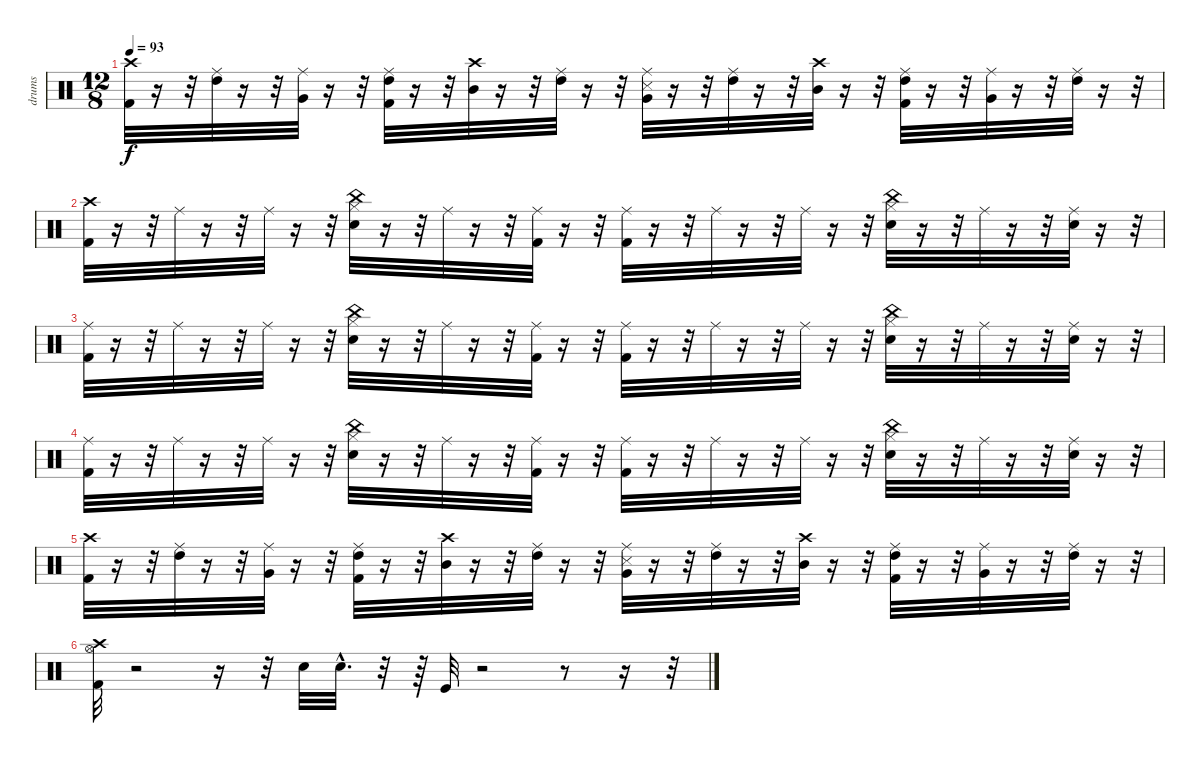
\track ("drums" "drums") {instrument percussion}
\staff {score}
\articulation defaults
\ts (12 8)
\tempo 93
\clef neutral
\ks c
("Kick (hit) 2" "Crash high (hit)").32{dy f} r.16 r.32 ("Ride (middle)" "High Tom (hit)").32 r.16 r.32 ("Very Low Tom (hit)" "Ride (middle)").32 r.16 r.32 ("Ride (middle)" "Kick (hit) 2" "High Tom (hit)").32 r.16 r.32 ("Mid Tom (hit)" "Crash high (hit)").32 r.16 r.32 ("Ride (middle)" "High Tom (hit)").32 r.16 r.32 ("Very Low Tom (hit)" "Snare (side stick) 3" "Ride (middle)").32 r.16 r.32 ("Ride (middle)" "High Tom (hit)").32 r.16 r.32 ("Mid Tom (hit)" "Crash high (hit)").32 r.16 r.32 ("Ride (middle)" "Kick (hit) 2" "High Tom (hit)").32 r.16 r.32 ("Very Low Tom (hit)" "Ride (middle)").32 r.16 r.32 ("Ride (middle)" "High Tom (hit)").32 r.16 r.32 |
("Kick (hit) 2" "Crash high (hit)").32 r.16 r.32 "Ride (middle)".32 r.16 r.32 "Ride (middle)".32 r.16 r.32 ("China (hit)" "Hi-Hat (closed)" "Snare (hit) 2").32 r.16 r.32 "Ride (middle)".32 r.16 r.32 ("Ride (middle)" "Kick (hit) 2").32 r.16 r.32 ("Kick (hit) 2" "Ride (middle)").32 r.16 r.32 "Ride (middle)".32 r.16 r.32 "Ride (middle)".32 r.16 r.32 ("China (hit)" "Hi-Hat (closed)" "Snare (hit) 2").32 r.16 r.32 "Ride (middle)".32 r.16 r.32 ("Ride (middle)" "Snare (hit) 2").32 r.16 r.32 |
("Kick (hit) 2" "Ride (middle)").32 r.16 r.32 "Ride (middle)".32 r.16 r.32 "Ride (middle)".32 r.16 r.32 ("China (hit)" "Hi-Hat (closed)" "Snare (hit) 2").32 r.16 r.32 "Ride (middle)".32 r.16 r.32 ("Ride (middle)" "Kick (hit) 2").32 r.16 r.32 ("Kick (hit) 2" "Ride (middle)").32 r.16 r.32 "Ride (middle)".32 r.16 r.32 "Ride (middle)".32 r.16 r.32 ("China (hit)" "Hi-Hat (closed)" "Snare (hit) 2").32 r.16 r.32 "Ride (middle)".32 r.16 r.32 ("Ride (middle)" "Snare (hit) 2").32 r.16 r.32 |
("Kick (hit) 2" "Ride (middle)").32 r.16 r.32 "Ride (middle)".32 r.16 r.32 "Ride (middle)".32 r.16 r.32 ("China (hit)" "Hi-Hat (closed)" "Snare (hit) 2").32 r.16 r.32 "Ride (middle)".32 r.16 r.32 ("Ride (middle)" "Kick (hit) 2").32 r.16 r.32 ("Kick (hit) 2" "Ride (middle)").32 r.16 r.32 "Ride (middle)".32 r.16 r.32 "Ride (middle)".32 r.16 r.32 ("China (hit)" "Hi-Hat (closed)" "Snare (hit) 2").32 r.16 r.32 "Ride (middle)".32 r.16 r.32 ("Ride (middle)" "Snare (hit) 2").32 r.16 r.32 |
("Kick (hit) 2" "Crash high (hit)").32 r.16 r.32 ("Ride (middle)" "High Tom (hit)").32 r.16 r.32 ("Very Low Tom (hit)" "Ride (middle)").32 r.16 r.32 ("Ride (middle)" "Kick (hit) 2" "High Tom (hit)").32 r.16 r.32 ("Mid Tom (hit)" "Crash high (hit)").32 r.16 r.32 ("Ride (middle)" "High Tom (hit)").32 r.16 r.32 ("Very Low Tom (hit)" "Snare (side stick) 3" "Ride (middle)").32 r.16 r.32 ("Ride (middle)" "High Tom (hit)").32 r.16 r.32 ("Mid Tom (hit)" "Crash high (hit)").32 r.16 r.32 ("Ride (middle)" "Kick (hit) 2" "High Tom (hit)").32 r.16 r.32 ("Very Low Tom (hit)" "Ride (middle)").32 r.16 r.32 ("Ride (middle)" "High Tom (hit)").32 r.16 r.32 |
("Kick (hit) 2" "Crash high (hit)" "Hi-Hat (open)").32 r.2 r.16 r.32 "Snare (hit) 2".32 "Snare (hit) 2"{hac}.32{d} r.32 r.64 "Kick (hit)".32 r.2 r.8 r.16 r.32
